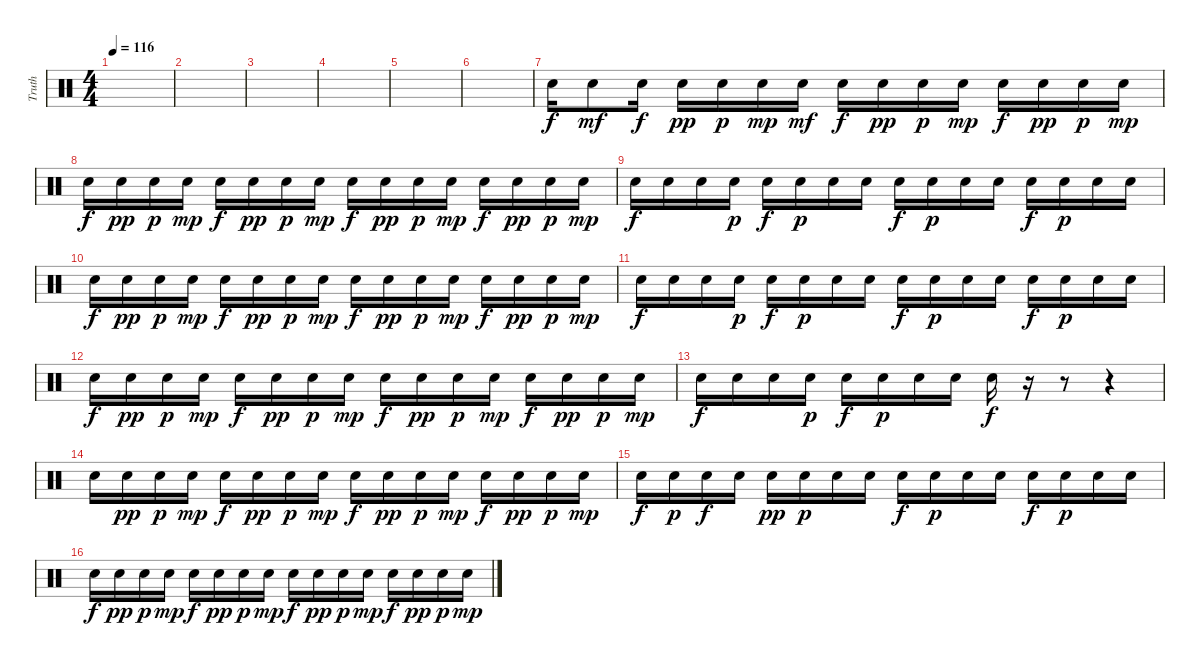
\track ("Truth" "Truth") {instrument percussion}
\staff {score}
\articulation defaults
\ts (4 4)
\tempo 116
\clef neutral
\ks c
|
|
|
|
|
|
"Electric Snare (hit)".16 "Electric Snare (hit)".8{dy mf} "Electric Snare (hit)".16{dy f} "Snare (hit) 2".16{dy pp} "Snare (hit) 2".16{dy p} "Snare (hit) 2".16{dy mp} "Snare (hit) 2".16{dy mf} "Electric Snare (hit)".16{dy f} "Snare (hit) 2".16{dy pp} "Snare (hit) 2".16{dy p} "Snare (hit) 2".16{dy mp} "Electric Snare (hit)".16{dy f} "Snare (hit) 2".16{dy pp} "Snare (hit) 2".16{dy p} "Snare (hit) 2".16{dy mp} |
"Electric Snare (hit)".16{dy f} "Snare (hit) 2".16{dy pp} "Snare (hit) 2".16{dy p} "Snare (hit) 2".16{dy mp} "Electric Snare (hit)".16{dy f} "Snare (hit) 2".16{dy pp} "Snare (hit) 2".16{dy p} "Snare (hit) 2".16{dy mp} "Electric Snare (hit)".16{dy f} "Snare (hit) 2".16{dy pp} "Snare (hit) 2".16{dy p} "Snare (hit) 2".16{dy mp} "Electric Snare (hit)".16{dy f} "Snare (hit) 2".16{dy pp} "Snare (hit) 2".16{dy p} "Snare (hit) 2".16{dy mp} |
"Electric Snare (hit)".16{dy f} "Electric Snare (hit)".16 "Electric Snare (hit)".16 "Snare (hit) 2".16{dy p} "Electric Snare (hit)".16{dy f} "Snare (hit) 2".16{dy p} "Snare (hit) 2".16 "Snare (hit) 2".16 "Electric Snare (hit)".16{dy f} "Snare (hit) 2".16{dy p} "Snare (hit) 2".16 "Snare (hit) 2".16 "Electric Snare (hit)".16{dy f} "Snare (hit) 2".16{dy p} "Snare (hit) 2".16 "Snare (hit) 2".16 |
"Electric Snare (hit)".16{dy f} "Snare (hit) 2".16{dy pp} "Snare (hit) 2".16{dy p} "Snare (hit) 2".16{dy mp} "Electric Snare (hit)".16{dy f} "Snare (hit) 2".16{dy pp} "Snare (hit) 2".16{dy p} "Snare (hit) 2".16{dy mp} "Electric Snare (hit)".16{dy f} "Snare (hit) 2".16{dy pp} "Snare (hit) 2".16{dy p} "Snare (hit) 2".16{dy mp} "Electric Snare (hit)".16{dy f} "Snare (hit) 2".16{dy pp} "Snare (hit) 2".16{dy p} "Snare (hit) 2".16{dy mp} |
"Electric Snare (hit)".16{dy f} "Electric Snare (hit)".16 "Electric Snare (hit)".16 "Snare (hit) 2".16{dy p} "Electric Snare (hit)".16{dy f} "Snare (hit) 2".16{dy p} "Snare (hit) 2".16 "Snare (hit) 2".16 "Electric Snare (hit)".16{dy f} "Snare (hit) 2".16{dy p} "Snare (hit) 2".16 "Snare (hit) 2".16 "Electric Snare (hit)".16{dy f} "Snare (hit) 2".16{dy p} "Snare (hit) 2".16 "Snare (hit) 2".16 |
"Electric Snare (hit)".16{dy f} "Snare (hit) 2".16{dy pp} "Snare (hit) 2".16{dy p} "Snare (hit) 2".16{dy mp} "Electric Snare (hit)".16{dy f} "Snare (hit) 2".16{dy pp} "Snare (hit) 2".16{dy p} "Snare (hit) 2".16{dy mp} "Electric Snare (hit)".16{dy f} "Snare (hit) 2".16{dy pp} "Snare (hit) 2".16{dy p} "Snare (hit) 2".16{dy mp} "Electric Snare (hit)".16{dy f} "Snare (hit) 2".16{dy pp} "Snare (hit) 2".16{dy p} "Snare (hit) 2".16{dy mp} |
"Electric Snare (hit)".16{dy f} "Electric Snare (hit)".16 "Electric Snare (hit)".16 "Snare (hit) 2".16{dy p} "Electric Snare (hit)".16{dy f} "Snare (hit) 2".16{dy p} "Snare (hit) 2".16 "Snare (hit) 2".16 "Electric Snare (hit)".16{dy f} r.16 r.8 r.4 |
"Electric Snare (hit)".16 "Snare (hit) 2".16{dy pp} "Snare (hit) 2".16{dy p} "Snare (hit) 2".16{dy mp} "Electric Snare (hit)".16{dy f} "Snare (hit) 2".16{dy pp} "Snare (hit) 2".16{dy p} "Snare (hit) 2".16{dy mp} "Electric Snare (hit)".16{dy f} "Snare (hit) 2".16{dy pp} "Snare (hit) 2".16{dy p} "Snare (hit) 2".16{dy mp} "Electric Snare (hit)".16{dy f} "Snare (hit) 2".16{dy pp} "Snare (hit) 2".16{dy p} "Snare (hit) 2".16{dy mp} |
"Electric Snare (hit)".16{dy f} "Snare (hit) 2".16{dy p} "Electric Snare (hit)".16{dy f} "Electric Snare (hit)".16 "Snare (hit) 2".16{dy pp} "Snare (hit) 2".16{dy p} "Snare (hit) 2".16 "Snare (hit) 2".16 "Electric Snare (hit)".16{dy f} "Snare (hit) 2".16{dy p} "Snare (hit) 2".16 "Snare (hit) 2".16 "Electric Snare (hit)".16{dy f} "Snare (hit) 2".16{dy p} "Snare (hit) 2".16 "Snare (hit) 2".16 |
"Electric Snare (hit)".16{dy f} "Snare (hit) 2".16{dy pp} "Snare (hit) 2".16{dy p} "Snare (hit) 2".16{dy mp} "Electric Snare (hit)".16{dy f} "Snare (hit) 2".16{dy pp} "Snare (hit) 2".16{dy p} "Snare (hit) 2".16{dy mp} "Electric Snare (hit)".16{dy f} "Snare (hit) 2".16{dy pp} "Snare (hit) 2".16{dy p} "Snare (hit) 2".16{dy mp} "Electric Snare (hit)".16{dy f} "Snare (hit) 2".16{dy pp} "Snare (hit) 2".16{dy p} "Snare (hit) 2".16{dy mp}
